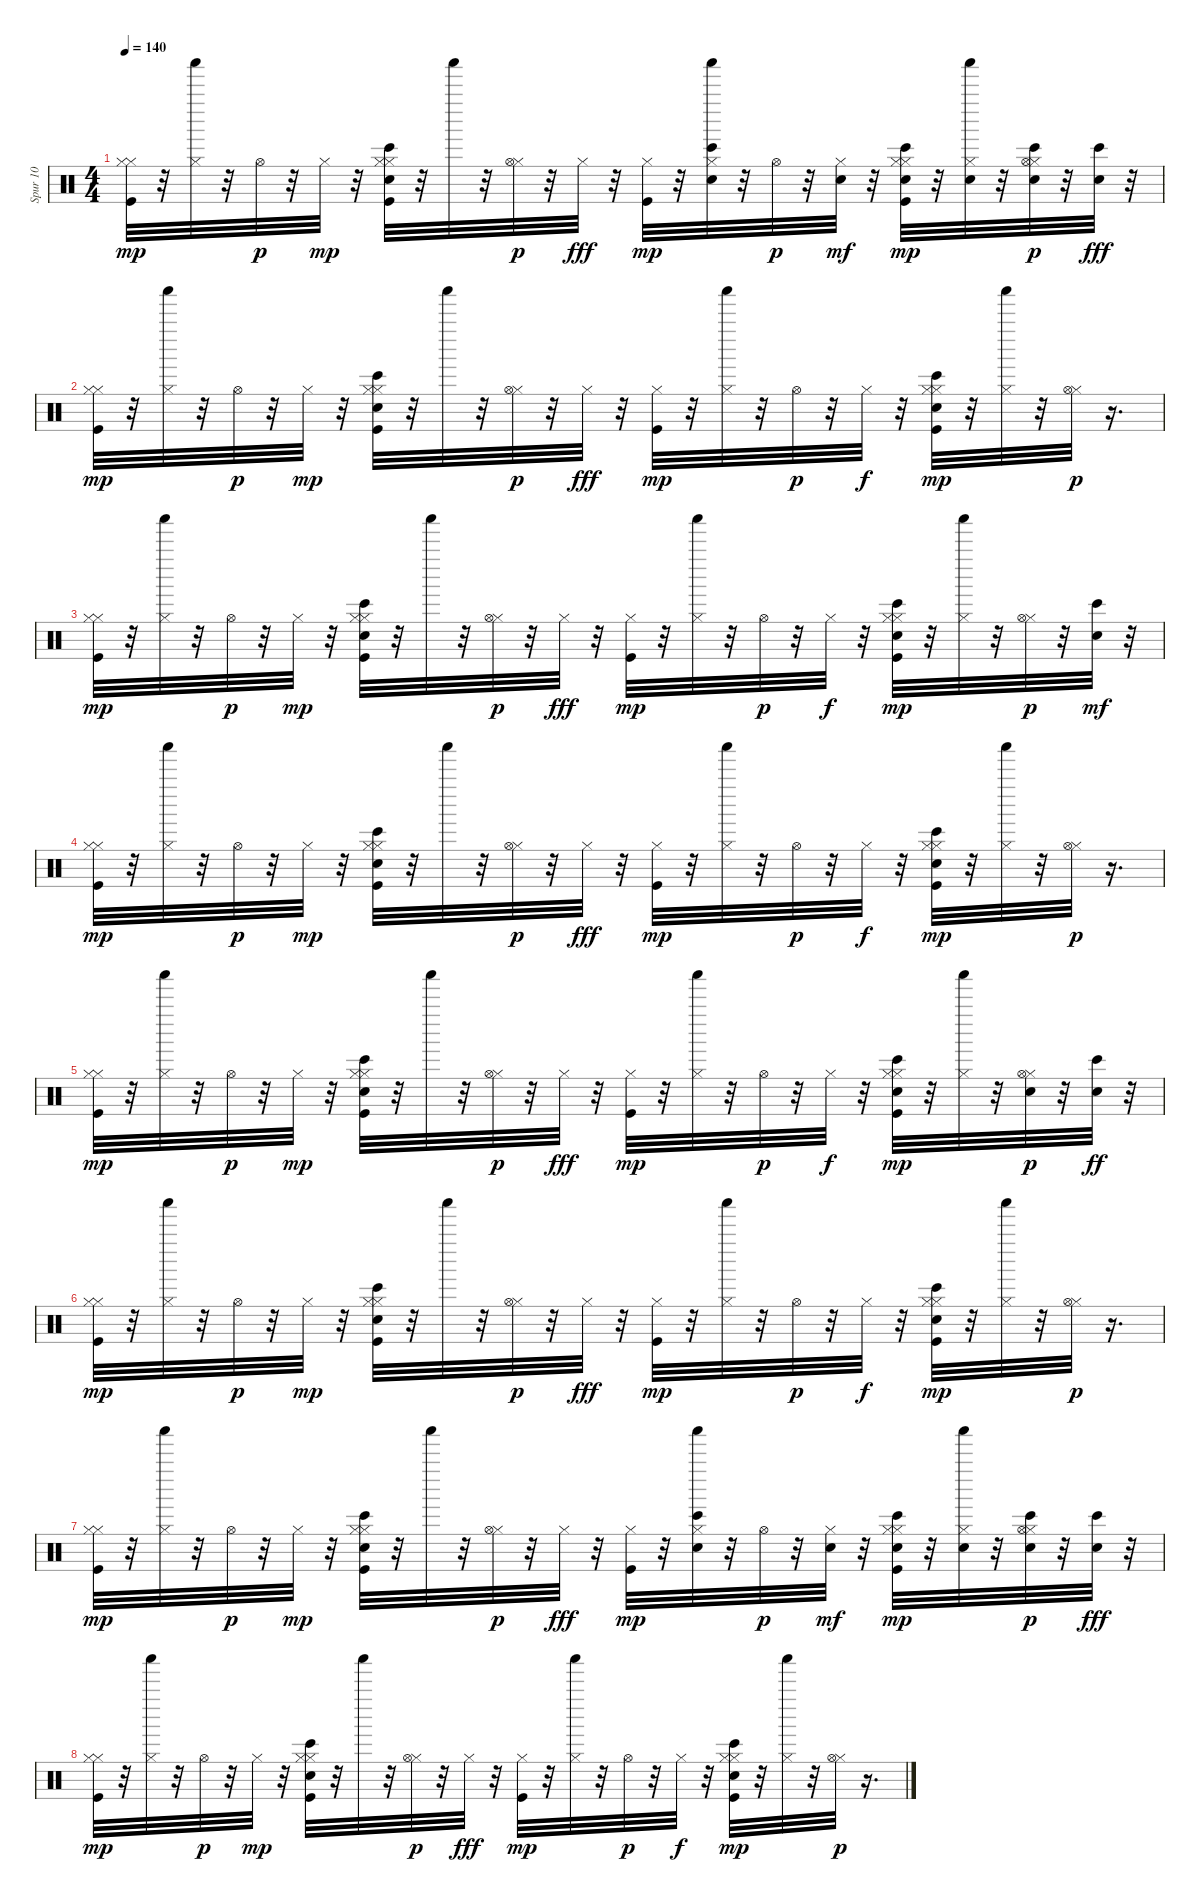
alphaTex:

\track ("Spur 10" "Spur 10") {instrument percussion}
\staff {score}
\articulation defaults
\ts (4 4)
\tempo 140
\clef neutral
\ks c
("Hi-Hat (closed)" "Kick (hit)" "Hi-Hat (closed)").32{dy mp} r.32 ("Hi-Hat (closed)" "Shaker (hit)").32 r.32 "Hi-Hat (open)".32{dy p} r.32 "Hi-Hat (closed)".32{dy mp} r.32 ("Hi-Hat (closed)" "Kick (hit)" "Bongo High (hit)" "Electric Snare (hit)" "Hi-Hat (closed)").32 r.32 "Shaker (hit)".32 r.32 ("Hi-Hat (closed)" "Hi-Hat (open)").32{dy p} r.32 "Hi-Hat (closed)".32{dy fff} r.32 ("Kick (hit)" "Hi-Hat (closed)").32{dy mp} r.32 ("Hi-Hat (closed)" "Shaker (hit)" "Electric Snare (hit)" "Bongo High (hit)").32 r.32 "Hi-Hat (open)".32{dy p} r.32 ("Hi-Hat (closed)" "Snare (hit) 2").32{dy mf} r.32 ("Hi-Hat (closed)" "Kick (hit)" "Bongo High (hit)" "Electric Snare (hit)" "Hi-Hat (closed)").32{dy mp} r.32 ("Hi-Hat (closed)" "Snare (hit) 2" "Shaker (hit)").32 r.32 ("Hi-Hat (closed)" "Electric Snare (hit)" "Bongo High (hit)" "Hi-Hat (open)").32{dy p} r.32 ("Bongo High (hit)" "Electric Snare (hit)").32{dy fff} r.32 |
("Hi-Hat (closed)" "Kick (hit)" "Hi-Hat (closed)").32{dy mp} r.32 ("Hi-Hat (closed)" "Shaker (hit)").32 r.32 "Hi-Hat (open)".32{dy p} r.32 "Hi-Hat (closed)".32{dy mp} r.32 ("Hi-Hat (closed)" "Kick (hit)" "Bongo High (hit)" "Electric Snare (hit)" "Hi-Hat (closed)").32 r.32 "Shaker (hit)".32 r.32 ("Hi-Hat (closed)" "Hi-Hat (open)").32{dy p} r.32 "Hi-Hat (closed)".32{dy fff} r.32 ("Kick (hit)" "Hi-Hat (closed)").32{dy mp} r.32 ("Hi-Hat (closed)" "Shaker (hit)").32 r.32 "Hi-Hat (open)".32{dy p} r.32 "Hi-Hat (closed)".32{dy f} r.32 ("Hi-Hat (closed)" "Kick (hit)" "Bongo High (hit)" "Electric Snare (hit)" "Hi-Hat (closed)").32{dy mp} r.32 ("Hi-Hat (closed)" "Shaker (hit)").32 r.32 ("Hi-Hat (closed)" "Hi-Hat (open)").32{dy p} r.16{d} |
("Hi-Hat (closed)" "Kick (hit)" "Hi-Hat (closed)").32{dy mp} r.32 ("Hi-Hat (closed)" "Shaker (hit)").32 r.32 "Hi-Hat (open)".32{dy p} r.32 "Hi-Hat (closed)".32{dy mp} r.32 ("Hi-Hat (closed)" "Kick (hit)" "Bongo High (hit)" "Electric Snare (hit)" "Hi-Hat (closed)").32 r.32 "Shaker (hit)".32 r.32 ("Hi-Hat (closed)" "Hi-Hat (open)").32{dy p} r.32 "Hi-Hat (closed)".32{dy fff} r.32 ("Kick (hit)" "Hi-Hat (closed)").32{dy mp} r.32 ("Hi-Hat (closed)" "Shaker (hit)").32 r.32 "Hi-Hat (open)".32{dy p} r.32 "Hi-Hat (closed)".32{dy f} r.32 ("Electric Snare (hit)" "Hi-Hat (closed)" "Kick (hit)" "Bongo High (hit)" "Hi-Hat (closed)").32{dy mp} r.32 ("Hi-Hat (closed)" "Shaker (hit)").32 r.32 ("Hi-Hat (closed)" "Hi-Hat (open)").32{dy p} r.32 ("Bongo High (hit)" "Electric Snare (hit)").32{dy mf} r.32 |
("Hi-Hat (closed)" "Kick (hit)" "Hi-Hat (closed)").32{dy mp} r.32 ("Hi-Hat (closed)" "Shaker (hit)").32 r.32 "Hi-Hat (open)".32{dy p} r.32 "Hi-Hat (closed)".32{dy mp} r.32 ("Hi-Hat (closed)" "Kick (hit)" "Bongo High (hit)" "Electric Snare (hit)" "Hi-Hat (closed)").32 r.32 "Shaker (hit)".32 r.32 ("Hi-Hat (closed)" "Hi-Hat (open)").32{dy p} r.32 "Hi-Hat (closed)".32{dy fff} r.32 ("Kick (hit)" "Hi-Hat (closed)").32{dy mp} r.32 ("Hi-Hat (closed)" "Shaker (hit)").32 r.32 "Hi-Hat (open)".32{dy p} r.32 "Hi-Hat (closed)".32{dy f} r.32 ("Hi-Hat (closed)" "Kick (hit)" "Bongo High (hit)" "Electric Snare (hit)" "Hi-Hat (closed)").32{dy mp} r.32 ("Hi-Hat (closed)" "Shaker (hit)").32 r.32 ("Hi-Hat (closed)" "Hi-Hat (open)").32{dy p} r.16{d} |
("Hi-Hat (closed)" "Kick (hit)" "Hi-Hat (closed)").32{dy mp} r.32 ("Hi-Hat (closed)" "Shaker (hit)").32 r.32 "Hi-Hat (open)".32{dy p} r.32 "Hi-Hat (closed)".32{dy mp} r.32 ("Hi-Hat (closed)" "Kick (hit)" "Bongo High (hit)" "Electric Snare (hit)" "Hi-Hat (closed)").32 r.32 "Shaker (hit)".32 r.32 ("Hi-Hat (closed)" "Hi-Hat (open)").32{dy p} r.32 "Hi-Hat (closed)".32{dy fff} r.32 ("Kick (hit)" "Hi-Hat (closed)").32{dy mp} r.32 ("Hi-Hat (closed)" "Shaker (hit)").32 r.32 "Hi-Hat (open)".32{dy p} r.32 "Hi-Hat (closed)".32{dy f} r.32 ("Hi-Hat (closed)" "Kick (hit)" "Bongo High (hit)" "Electric Snare (hit)" "Hi-Hat (closed)").32{dy mp} r.32 ("Hi-Hat (closed)" "Shaker (hit)").32 r.32 ("Electric Snare (hit)" "Hi-Hat (closed)" "Hi-Hat (open)").32{dy p} r.32 ("Bongo High (hit)" "Electric Snare (hit)").32{dy ff} r.32 |
("Hi-Hat (closed)" "Kick (hit)" "Hi-Hat (closed)").32{dy mp} r.32 ("Hi-Hat (closed)" "Shaker (hit)").32 r.32 "Hi-Hat (open)".32{dy p} r.32 "Hi-Hat (closed)".32{dy mp} r.32 ("Hi-Hat (closed)" "Kick (hit)" "Bongo High (hit)" "Electric Snare (hit)" "Hi-Hat (closed)").32 r.32 "Shaker (hit)".32 r.32 ("Hi-Hat (closed)" "Hi-Hat (open)").32{dy p} r.32 "Hi-Hat (closed)".32{dy fff} r.32 ("Kick (hit)" "Hi-Hat (closed)").32{dy mp} r.32 ("Hi-Hat (closed)" "Shaker (hit)").32 r.32 "Hi-Hat (open)".32{dy p} r.32 "Hi-Hat (closed)".32{dy f} r.32 ("Hi-Hat (closed)" "Kick (hit)" "Bongo High (hit)" "Electric Snare (hit)" "Hi-Hat (closed)").32{dy mp} r.32 ("Hi-Hat (closed)" "Shaker (hit)").32 r.32 ("Hi-Hat (closed)" "Hi-Hat (open)").32{dy p} r.16{d} |
("Hi-Hat (closed)" "Kick (hit)" "Hi-Hat (closed)").32{dy mp} r.32 ("Hi-Hat (closed)" "Shaker (hit)").32 r.32 "Hi-Hat (open)".32{dy p} r.32 "Hi-Hat (closed)".32{dy mp} r.32 ("Hi-Hat (closed)" "Kick (hit)" "Bongo High (hit)" "Electric Snare (hit)" "Hi-Hat (closed)").32 r.32 "Shaker (hit)".32 r.32 ("Hi-Hat (closed)" "Hi-Hat (open)").32{dy p} r.32 "Hi-Hat (closed)".32{dy fff} r.32 ("Kick (hit)" "Hi-Hat (closed)").32{dy mp} r.32 ("Hi-Hat (closed)" "Shaker (hit)" "Electric Snare (hit)" "Bongo High (hit)").32 r.32 "Hi-Hat (open)".32{dy p} r.32 ("Hi-Hat (closed)" "Snare (hit) 2").32{dy mf} r.32 ("Hi-Hat (closed)" "Kick (hit)" "Bongo High (hit)" "Electric Snare (hit)" "Hi-Hat (closed)").32{dy mp} r.32 ("Hi-Hat (closed)" "Snare (hit) 2" "Shaker (hit)").32 r.32 ("Hi-Hat (closed)" "Electric Snare (hit)" "Bongo High (hit)" "Hi-Hat (open)").32{dy p} r.32 ("Bongo High (hit)" "Electric Snare (hit)").32{dy fff} r.32 |
("Hi-Hat (closed)" "Kick (hit)" "Hi-Hat (closed)").32{dy mp} r.32 ("Hi-Hat (closed)" "Shaker (hit)").32 r.32 "Hi-Hat (open)".32{dy p} r.32 "Hi-Hat (closed)".32{dy mp} r.32 ("Hi-Hat (closed)" "Kick (hit)" "Bongo High (hit)" "Electric Snare (hit)" "Hi-Hat (closed)").32 r.32 "Shaker (hit)".32 r.32 ("Hi-Hat (closed)" "Hi-Hat (open)").32{dy p} r.32 "Hi-Hat (closed)".32{dy fff} r.32 ("Kick (hit)" "Hi-Hat (closed)").32{dy mp} r.32 ("Hi-Hat (closed)" "Shaker (hit)").32 r.32 "Hi-Hat (open)".32{dy p} r.32 "Hi-Hat (closed)".32{dy f} r.32 ("Hi-Hat (closed)" "Kick (hit)" "Bongo High (hit)" "Electric Snare (hit)" "Hi-Hat (closed)").32{dy mp} r.32 ("Hi-Hat (closed)" "Shaker (hit)").32 r.32 ("Hi-Hat (closed)" "Hi-Hat (open)").32{dy p} r.16{d}
